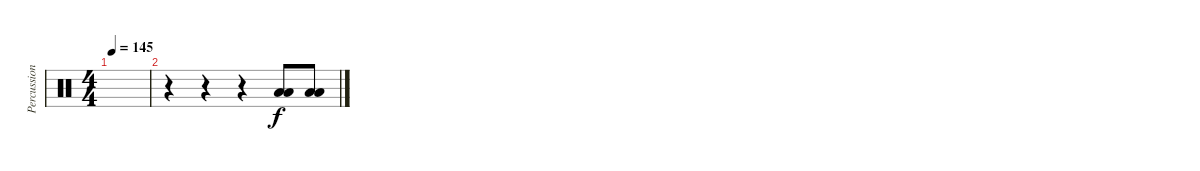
\track ("Percussion" "Percussion") {instrument percussion}
\staff {score}
\articulation defaults
\ts (4 4)
\tempo 145
\clef neutral
\ks c
|
r.4 r.4 r.4 ("Low Floor Tom (hit)" "Low Tom (hit)").8{dy f} ("Low Floor Tom (hit)" "Low Tom (hit)").8
